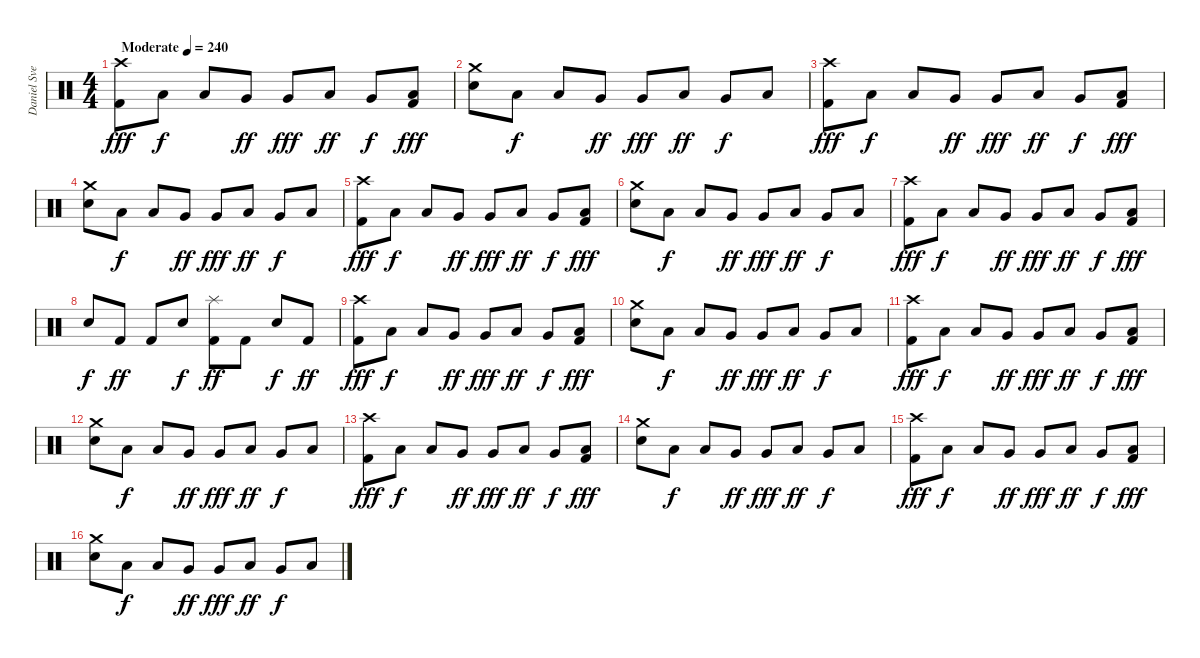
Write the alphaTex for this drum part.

\track ("Daniel Svensson" "Daniel Sve") {instrument percussion}
\staff {score}
\articulation defaults
\ts (4 4)
\tempo (240 "Moderate")
\clef neutral
\ks c
("Crash high (hit)" "Kick (hit) 2").8{dy fff} "Low Floor Tom (hit)".8{dy f} "Low Floor Tom (hit)".8 "Very Low Tom (hit)".8{dy ff} "Very Low Tom (hit)".8{dy fff} "Low Tom (hit)".8{dy ff} "Very Low Tom (hit)".8{dy f} ("Low Floor Tom (hit)" "Kick (hit) 2").8{dy fff} |
("Crash medium (hit)" "Electric Snare (hit)").8 "Low Floor Tom (hit)".8{dy f} "Low Floor Tom (hit)".8 "Very Low Tom (hit)".8{dy ff} "Very Low Tom (hit)".8{dy fff} "Low Tom (hit)".8{dy ff} "Very Low Tom (hit)".8{dy f} "Low Floor Tom (hit)".8 |
("Crash high (hit)" "Kick (hit) 2").8{dy fff} "Low Floor Tom (hit)".8{dy f} "Low Floor Tom (hit)".8 "Very Low Tom (hit)".8{dy ff} "Very Low Tom (hit)".8{dy fff} "Low Tom (hit)".8{dy ff} "Very Low Tom (hit)".8{dy f} ("Low Floor Tom (hit)" "Kick (hit) 2").8{dy fff} |
("Crash medium (hit)" "Electric Snare (hit)").8 "Low Floor Tom (hit)".8{dy f} "Low Floor Tom (hit)".8 "Very Low Tom (hit)".8{dy ff} "Very Low Tom (hit)".8{dy fff} "Low Tom (hit)".8{dy ff} "Very Low Tom (hit)".8{dy f} "Low Floor Tom (hit)".8 |
("Crash high (hit)" "Kick (hit) 2").8{dy fff} "Low Floor Tom (hit)".8{dy f} "Low Floor Tom (hit)".8 "Very Low Tom (hit)".8{dy ff} "Very Low Tom (hit)".8{dy fff} "Low Tom (hit)".8{dy ff} "Very Low Tom (hit)".8{dy f} ("Low Floor Tom (hit)" "Kick (hit) 2").8{dy fff} |
("Crash medium (hit)" "Electric Snare (hit)").8 "Low Floor Tom (hit)".8{dy f} "Low Floor Tom (hit)".8 "Very Low Tom (hit)".8{dy ff} "Very Low Tom (hit)".8{dy fff} "Low Tom (hit)".8{dy ff} "Very Low Tom (hit)".8{dy f} "Low Floor Tom (hit)".8 |
("Crash high (hit)" "Kick (hit) 2").8{dy fff} "Low Floor Tom (hit)".8{dy f} "Low Floor Tom (hit)".8 "Very Low Tom (hit)".8{dy ff} "Very Low Tom (hit)".8{dy fff} "Low Tom (hit)".8{dy ff} "Very Low Tom (hit)".8{dy f} ("Low Floor Tom (hit)" "Kick (hit) 2").8{dy fff} |
"Electric Snare (hit)".8{dy f} "Kick (hit) 2".8{dy ff} "Kick (hit) 2".8 "Electric Snare (hit)".8{dy f} ("Splash (hit)" "Kick (hit) 2").8{dy ff} "Kick (hit) 2".8 "Electric Snare (hit)".8{dy f} "Kick (hit) 2".8{dy ff} |
("Crash high (hit)" "Kick (hit) 2").8{dy fff} "Low Floor Tom (hit)".8{dy f} "Low Floor Tom (hit)".8 "Very Low Tom (hit)".8{dy ff} "Very Low Tom (hit)".8{dy fff} "Low Tom (hit)".8{dy ff} "Very Low Tom (hit)".8{dy f} ("Low Floor Tom (hit)" "Kick (hit) 2").8{dy fff} |
("Crash medium (hit)" "Electric Snare (hit)").8 "Low Floor Tom (hit)".8{dy f} "Low Floor Tom (hit)".8 "Very Low Tom (hit)".8{dy ff} "Very Low Tom (hit)".8{dy fff} "Low Tom (hit)".8{dy ff} "Very Low Tom (hit)".8{dy f} "Low Floor Tom (hit)".8 |
("Crash high (hit)" "Kick (hit) 2").8{dy fff} "Low Floor Tom (hit)".8{dy f} "Low Floor Tom (hit)".8 "Very Low Tom (hit)".8{dy ff} "Very Low Tom (hit)".8{dy fff} "Low Tom (hit)".8{dy ff} "Very Low Tom (hit)".8{dy f} ("Low Floor Tom (hit)" "Kick (hit) 2").8{dy fff} |
("Crash medium (hit)" "Electric Snare (hit)").8 "Low Floor Tom (hit)".8{dy f} "Low Floor Tom (hit)".8 "Very Low Tom (hit)".8{dy ff} "Very Low Tom (hit)".8{dy fff} "Low Tom (hit)".8{dy ff} "Very Low Tom (hit)".8{dy f} "Low Floor Tom (hit)".8 |
("Crash high (hit)" "Kick (hit) 2").8{dy fff} "Low Floor Tom (hit)".8{dy f} "Low Floor Tom (hit)".8 "Very Low Tom (hit)".8{dy ff} "Very Low Tom (hit)".8{dy fff} "Low Tom (hit)".8{dy ff} "Very Low Tom (hit)".8{dy f} ("Low Floor Tom (hit)" "Kick (hit) 2").8{dy fff} |
("Crash medium (hit)" "Electric Snare (hit)").8 "Low Floor Tom (hit)".8{dy f} "Low Floor Tom (hit)".8 "Very Low Tom (hit)".8{dy ff} "Very Low Tom (hit)".8{dy fff} "Low Tom (hit)".8{dy ff} "Very Low Tom (hit)".8{dy f} "Low Floor Tom (hit)".8 |
("Crash high (hit)" "Kick (hit) 2").8{dy fff} "Low Floor Tom (hit)".8{dy f} "Low Floor Tom (hit)".8 "Very Low Tom (hit)".8{dy ff} "Very Low Tom (hit)".8{dy fff} "Low Tom (hit)".8{dy ff} "Very Low Tom (hit)".8{dy f} ("Low Floor Tom (hit)" "Kick (hit) 2").8{dy fff} |
("Crash medium (hit)" "Electric Snare (hit)").8 "Low Floor Tom (hit)".8{dy f} "Low Floor Tom (hit)".8 "Very Low Tom (hit)".8{dy ff} "Very Low Tom (hit)".8{dy fff} "Low Tom (hit)".8{dy ff} "Very Low Tom (hit)".8{dy f} "Low Floor Tom (hit)".8
